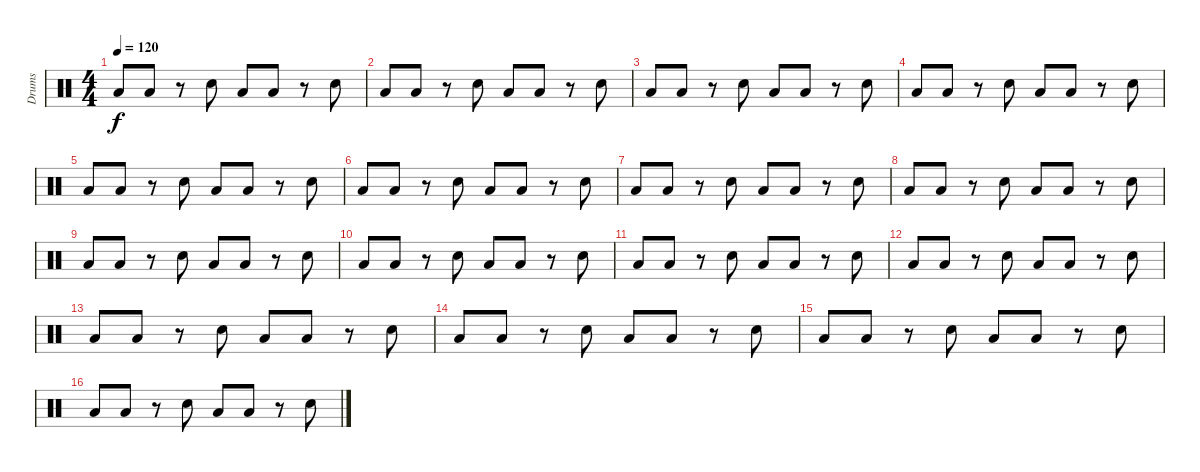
\track ("Drums" "Drums") {instrument percussion}
\staff {score}
\articulation defaults
\ts (4 4)
\tempo 120
\clef neutral
\ks c "Low Tom (hit)".8{dy f} "Low Tom (hit)".8
r.8 "Electric Snare (hit)".8 "Low Tom (hit)".8 "Low Tom (hit)".8 r.8 "Electric Snare (hit)".8 |
"Low Tom (hit)".8 "Low Tom (hit)".8 r.8 "Electric Snare (hit)".8 "Low Tom (hit)".8 "Low Tom (hit)".8 r.8 "Electric Snare (hit)".8 |
"Low Tom (hit)".8 "Low Tom (hit)".8 r.8 "Electric Snare (hit)".8 "Low Tom (hit)".8 "Low Tom (hit)".8 r.8 "Electric Snare (hit)".8 |
"Low Tom (hit)".8 "Low Tom (hit)".8 r.8 "Electric Snare (hit)".8 "Low Tom (hit)".8 "Low Tom (hit)".8 r.8 "Electric Snare (hit)".8 |
"Low Tom (hit)".8 "Low Tom (hit)".8 r.8 "Electric Snare (hit)".8 "Low Tom (hit)".8 "Low Tom (hit)".8 r.8 "Electric Snare (hit)".8 |
"Low Tom (hit)".8 "Low Tom (hit)".8 r.8 "Electric Snare (hit)".8 "Low Tom (hit)".8 "Low Tom (hit)".8 r.8 "Electric Snare (hit)".8 |
"Low Tom (hit)".8 "Low Tom (hit)".8 r.8 "Electric Snare (hit)".8 "Low Tom (hit)".8 "Low Tom (hit)".8 r.8 "Electric Snare (hit)".8 |
"Low Tom (hit)".8 "Low Tom (hit)".8 r.8 "Electric Snare (hit)".8 "Low Tom (hit)".8 "Low Tom (hit)".8 r.8 "Electric Snare (hit)".8 |
"Low Tom (hit)".8 "Low Tom (hit)".8 r.8 "Electric Snare (hit)".8 "Low Tom (hit)".8 "Low Tom (hit)".8 r.8 "Electric Snare (hit)".8 |
"Low Tom (hit)".8 "Low Tom (hit)".8 r.8 "Electric Snare (hit)".8 "Low Tom (hit)".8 "Low Tom (hit)".8 r.8 "Electric Snare (hit)".8 |
"Low Tom (hit)".8 "Low Tom (hit)".8 r.8 "Electric Snare (hit)".8 "Low Tom (hit)".8 "Low Tom (hit)".8 r.8 "Electric Snare (hit)".8 |
"Low Tom (hit)".8 "Low Tom (hit)".8 r.8 "Electric Snare (hit)".8 "Low Tom (hit)".8 "Low Tom (hit)".8 r.8 "Electric Snare (hit)".8 |
"Low Tom (hit)".8 "Low Tom (hit)".8 r.8 "Electric Snare (hit)".8 "Low Tom (hit)".8 "Low Tom (hit)".8 r.8 "Electric Snare (hit)".8 |
"Low Tom (hit)".8 "Low Tom (hit)".8 r.8 "Electric Snare (hit)".8 "Low Tom (hit)".8 "Low Tom (hit)".8 r.8 "Electric Snare (hit)".8 |
"Low Tom (hit)".8 "Low Tom (hit)".8 r.8 "Electric Snare (hit)".8 "Low Tom (hit)".8 "Low Tom (hit)".8 r.8 "Electric Snare (hit)".8 |
"Low Tom (hit)".8 "Low Tom (hit)".8 r.8 "Electric Snare (hit)".8 "Low Tom (hit)".8 "Low Tom (hit)".8 r.8 "Electric Snare (hit)".8
